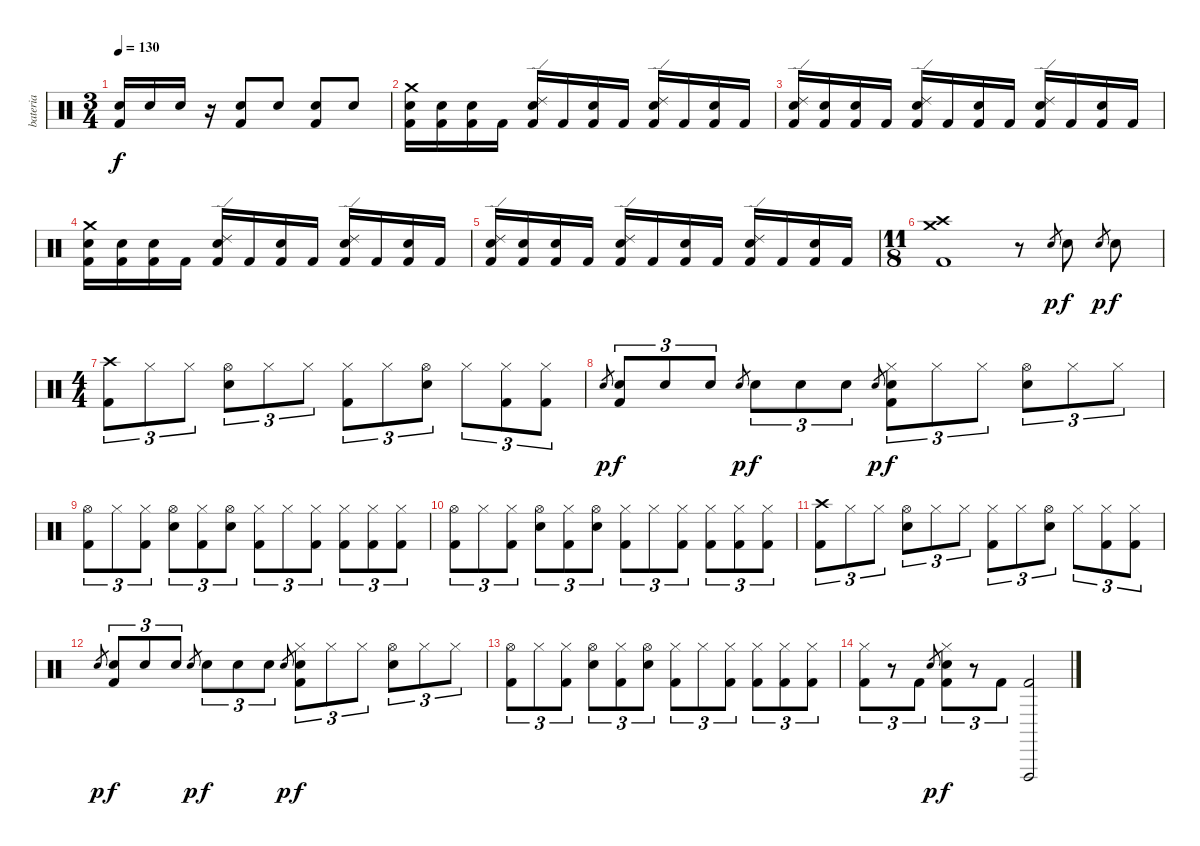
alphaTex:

\track ("bateria" "bateria") {instrument percussion}
\staff {score}
\articulation defaults
\ts (3 4)
\tempo 130
\clef neutral
\ks c
("Electric Snare (hit)" "Kick (hit) 2").16{dy f} "Electric Snare (hit)".16 "Electric Snare (hit)".16 r.16 ("Electric Snare (hit)" "Kick (hit) 2").8 "Electric Snare (hit)".8 ("Electric Snare (hit)" "Kick (hit) 2").8 "Electric Snare (hit)".8 |
("Crash medium (hit)" "Electric Snare (hit)" "Kick (hit) 2").16 ("Electric Snare (hit)" "Kick (hit) 2").16 ("Electric Snare (hit)" "Kick (hit) 2").16 "Kick (hit) 2".16 ("Ride (edge) 2" "Electric Snare (hit)" "Kick (hit) 2").16 "Kick (hit) 2".16 ("Electric Snare (hit)" "Kick (hit) 2").16 "Kick (hit) 2".16 ("Ride (edge) 2" "Electric Snare (hit)" "Kick (hit) 2").16 "Kick (hit) 2".16 ("Electric Snare (hit)" "Kick (hit) 2").16 "Kick (hit) 2".16 |
("Ride (edge) 2" "Electric Snare (hit)" "Kick (hit) 2").16 ("Electric Snare (hit)" "Kick (hit) 2").16 ("Electric Snare (hit)" "Kick (hit) 2").16 "Kick (hit) 2".16 ("Ride (edge) 2" "Electric Snare (hit)" "Kick (hit) 2").16 "Kick (hit) 2".16 ("Electric Snare (hit)" "Kick (hit) 2").16 "Kick (hit) 2".16 ("Ride (edge) 2" "Electric Snare (hit)" "Kick (hit) 2").16 "Kick (hit) 2".16 ("Electric Snare (hit)" "Kick (hit) 2").16 "Kick (hit) 2".16 |
("Crash medium (hit)" "Electric Snare (hit)" "Kick (hit) 2").16 ("Electric Snare (hit)" "Kick (hit) 2").16 ("Electric Snare (hit)" "Kick (hit) 2").16 "Kick (hit) 2".16 ("Ride (edge) 2" "Electric Snare (hit)" "Kick (hit) 2").16 "Kick (hit) 2".16 ("Electric Snare (hit)" "Kick (hit) 2").16 "Kick (hit) 2".16 ("Ride (edge) 2" "Electric Snare (hit)" "Kick (hit) 2").16 "Kick (hit) 2".16 ("Electric Snare (hit)" "Kick (hit) 2").16 "Kick (hit) 2".16 |
("Ride (edge) 2" "Electric Snare (hit)" "Kick (hit) 2").16 ("Electric Snare (hit)" "Kick (hit) 2").16 ("Electric Snare (hit)" "Kick (hit) 2").16 "Kick (hit) 2".16 ("Ride (edge) 2" "Electric Snare (hit)" "Kick (hit) 2").16 "Kick (hit) 2".16 ("Electric Snare (hit)" "Kick (hit) 2").16 "Kick (hit) 2".16 ("Ride (edge) 2" "Electric Snare (hit)" "Kick (hit) 2").16 "Kick (hit) 2".16 ("Electric Snare (hit)" "Kick (hit) 2").16 "Kick (hit) 2".16 |
\ts (11 8)
("Crash high (hit)" "Crash medium (hit)" "Kick (hit) 2").1 r.8 "Electric Snare (hit)".8{gr dy p} "Electric Snare (hit)".8{dy f} "Electric Snare (hit)".8{gr dy p} "Electric Snare (hit)".8{dy f} |
\ts (4 4)
("Crash high (hit)" "Kick (hit) 2").8{tu (3 2)} "Hi-Hat (closed)".8{tu (3 2)} "Hi-Hat (closed)".8{tu (3 2)} ("Hi-Hat (open)" "Electric Snare (hit)").8{tu (3 2)} "Hi-Hat (closed)".8{tu (3 2)} "Hi-Hat (closed)".8{tu (3 2)} ("Hi-Hat (closed)" "Kick (hit) 2").8{tu (3 2)} "Hi-Hat (closed)".8{tu (3 2)} ("Hi-Hat (open)" "Electric Snare (hit)").8{tu (3 2)} "Hi-Hat (closed)".8{tu (3 2)} ("Hi-Hat (closed)" "Kick (hit) 2").8{tu (3 2)} ("Hi-Hat (closed)" "Kick (hit) 2").8{tu (3 2)} |
"Electric Snare (hit)".8{gr dy p} ("Electric Snare (hit)" "Kick (hit) 2").8{tu (3 2) dy f volume 10} "Electric Snare (hit)".8{tu (3 2) volume 14} "Electric Snare (hit)".8{tu (3 2)} "Electric Snare (hit)".8{gr dy p} "Electric Snare (hit)".8{tu (3 2) dy f} "Electric Snare (hit)".8{tu (3 2)} "Electric Snare (hit)".8{tu (3 2)} "Electric Snare (hit)".8{gr dy p} ("Hi-Hat (closed)" "Electric Snare (hit)" "Kick (hit) 2").8{tu (3 2) dy f} "Hi-Hat (closed)".8{tu (3 2)} "Hi-Hat (closed)".8{tu (3 2)} ("Hi-Hat (open)" "Electric Snare (hit)").8{tu (3 2)} "Hi-Hat (closed)".8{tu (3 2)} "Hi-Hat (closed)".8{tu (3 2)} |
("Hi-Hat (open)" "Kick (hit) 2").8{tu (3 2)} "Hi-Hat (closed)".8{tu (3 2)} ("Hi-Hat (closed)" "Kick (hit) 2").8{tu (3 2)} ("Hi-Hat (open)" "Electric Snare (hit)").8{tu (3 2)} ("Hi-Hat (closed)" "Kick (hit) 2").8{tu (3 2)} ("Hi-Hat (open)" "Electric Snare (hit)").8{tu (3 2)} ("Hi-Hat (closed)" "Kick (hit) 2").8{tu (3 2)} "Hi-Hat (closed)".8{tu (3 2)} ("Hi-Hat (closed)" "Kick (hit) 2").8{tu (3 2)} ("Hi-Hat (closed)" "Kick (hit) 2").8{tu (3 2)} ("Hi-Hat (closed)" "Kick (hit) 2").8{tu (3 2)} ("Hi-Hat (closed)" "Kick (hit) 2").8{tu (3 2)} |
("Hi-Hat (open)" "Kick (hit) 2").8{tu (3 2)} "Hi-Hat (closed)".8{tu (3 2)} ("Hi-Hat (closed)" "Kick (hit) 2").8{tu (3 2)} ("Hi-Hat (open)" "Electric Snare (hit)").8{tu (3 2)} ("Hi-Hat (closed)" "Kick (hit) 2").8{tu (3 2)} ("Hi-Hat (open)" "Electric Snare (hit)").8{tu (3 2)} ("Hi-Hat (closed)" "Kick (hit) 2").8{tu (3 2)} "Hi-Hat (closed)".8{tu (3 2)} ("Hi-Hat (closed)" "Kick (hit) 2").8{tu (3 2)} ("Hi-Hat (closed)" "Kick (hit) 2").8{tu (3 2)} ("Hi-Hat (closed)" "Kick (hit) 2").8{tu (3 2)} ("Hi-Hat (closed)" "Kick (hit) 2").8{tu (3 2)} |
("Crash high (hit)" "Kick (hit) 2").8{tu (3 2)} "Hi-Hat (closed)".8{tu (3 2)} "Hi-Hat (closed)".8{tu (3 2)} ("Hi-Hat (open)" "Electric Snare (hit)").8{tu (3 2)} "Hi-Hat (closed)".8{tu (3 2)} "Hi-Hat (closed)".8{tu (3 2)} ("Hi-Hat (closed)" "Kick (hit) 2").8{tu (3 2)} "Hi-Hat (closed)".8{tu (3 2)} ("Hi-Hat (open)" "Electric Snare (hit)").8{tu (3 2)} "Hi-Hat (closed)".8{tu (3 2)} ("Hi-Hat (closed)" "Kick (hit) 2").8{tu (3 2)} ("Hi-Hat (closed)" "Kick (hit) 2").8{tu (3 2)} |
"Electric Snare (hit)".8{gr dy p} ("Electric Snare (hit)" "Kick (hit) 2").8{tu (3 2) dy f volume 10} "Electric Snare (hit)".8{tu (3 2) volume 14} "Electric Snare (hit)".8{tu (3 2)} "Electric Snare (hit)".8{gr dy p} "Electric Snare (hit)".8{tu (3 2) dy f} "Electric Snare (hit)".8{tu (3 2)} "Electric Snare (hit)".8{tu (3 2)} "Electric Snare (hit)".8{gr dy p} ("Hi-Hat (closed)" "Electric Snare (hit)" "Kick (hit) 2").8{tu (3 2) dy f} "Hi-Hat (closed)".8{tu (3 2)} "Hi-Hat (closed)".8{tu (3 2)} ("Hi-Hat (open)" "Electric Snare (hit)").8{tu (3 2)} "Hi-Hat (closed)".8{tu (3 2)} "Hi-Hat (closed)".8{tu (3 2)} |
("Hi-Hat (open)" "Kick (hit) 2").8{tu (3 2)} "Hi-Hat (closed)".8{tu (3 2)} ("Hi-Hat (closed)" "Kick (hit) 2").8{tu (3 2)} ("Hi-Hat (open)" "Electric Snare (hit)").8{tu (3 2)} ("Hi-Hat (closed)" "Kick (hit) 2").8{tu (3 2)} ("Hi-Hat (open)" "Electric Snare (hit)").8{tu (3 2)} ("Hi-Hat (closed)" "Kick (hit) 2").8{tu (3 2)} "Hi-Hat (closed)".8{tu (3 2)} ("Hi-Hat (closed)" "Kick (hit) 2").8{tu (3 2)} ("Hi-Hat (closed)" "Kick (hit) 2").8{tu (3 2)} ("Hi-Hat (closed)" "Kick (hit) 2").8{tu (3 2)} ("Hi-Hat (closed)" "Kick (hit) 2").8{tu (3 2)} |
("Hi-Hat (closed)" "Kick (hit) 2").8{tu (3 2)} r.8{tu (3 2)} "Kick (hit) 2".8{tu (3 2)} "Electric Snare (hit)".8{gr dy p} ("Hi-Hat (closed)" "Electric Snare (hit)" "Kick (hit) 2").8{tu (3 2) dy f} r.8{tu (3 2)} "Kick (hit) 2".8{tu (3 2)} ("Vibraslap (hit)" "Kick (hit) 2").2
